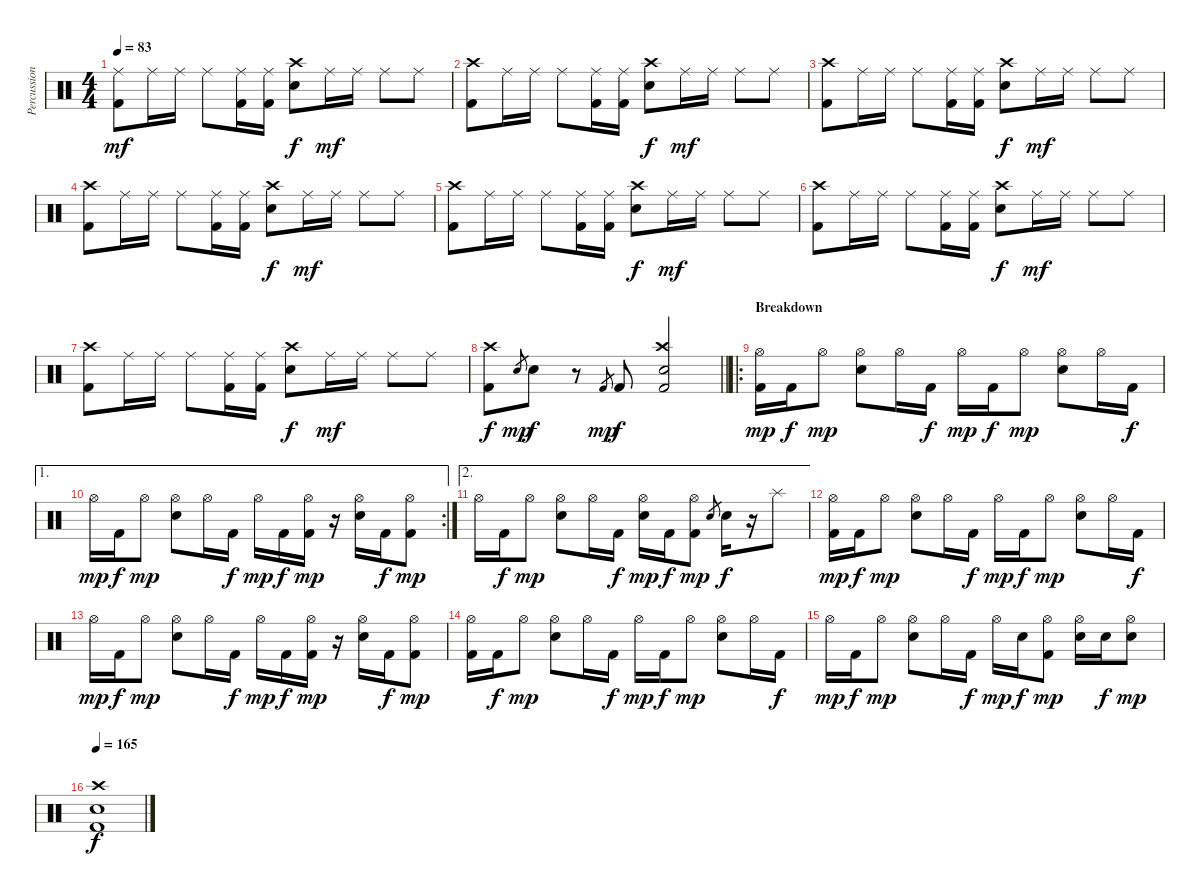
\track ("Percussion" "Percussion") {instrument percussion}
\staff {score}
\articulation defaults
\ts (4 4)
\tempo 83
\clef neutral
\ks c
("Ride (middle)" "Kick (hit) 2").8{dy mf} "Ride (middle)".16 "Ride (middle)".16 "Ride (middle)".8 ("Ride (middle)" "Kick (hit) 2").16 ("Ride (middle)" "Kick (hit) 2").16 ("Crash high (hit)" "Electric Snare (hit)").8{dy f} "Ride (middle)".16{dy mf} "Ride (middle)".16 "Ride (middle)".8 "Ride (middle)".8 |
("Crash high (hit)" "Kick (hit) 2").8 "Ride (middle)".16 "Ride (middle)".16 "Ride (middle)".8 ("Ride (middle)" "Kick (hit) 2").16 ("Ride (middle)" "Kick (hit) 2").16 ("Crash high (hit)" "Electric Snare (hit)").8{dy f} "Ride (middle)".16{dy mf} "Ride (middle)".16 "Ride (middle)".8 "Ride (middle)".8 |
("Crash high (hit)" "Kick (hit) 2").8 "Ride (middle)".16 "Ride (middle)".16 "Ride (middle)".8 ("Ride (middle)" "Kick (hit) 2").16 ("Ride (middle)" "Kick (hit) 2").16 ("Crash high (hit)" "Electric Snare (hit)").8{dy f} "Ride (middle)".16{dy mf} "Ride (middle)".16 "Ride (middle)".8 "Ride (middle)".8 |
("Crash high (hit)" "Kick (hit) 2").8 "Ride (middle)".16 "Ride (middle)".16 "Ride (middle)".8 ("Ride (middle)" "Kick (hit) 2").16 ("Ride (middle)" "Kick (hit) 2").16 ("Crash high (hit)" "Electric Snare (hit)").8{dy f} "Ride (middle)".16{dy mf} "Ride (middle)".16 "Ride (middle)".8 "Ride (middle)".8 |
("Crash high (hit)" "Kick (hit) 2").8 "Ride (middle)".16 "Ride (middle)".16 "Ride (middle)".8 ("Ride (middle)" "Kick (hit) 2").16 ("Ride (middle)" "Kick (hit) 2").16 ("Crash high (hit)" "Electric Snare (hit)").8{dy f} "Ride (middle)".16{dy mf} "Ride (middle)".16 "Ride (middle)".8 "Ride (middle)".8 |
("Crash high (hit)" "Kick (hit) 2").8 "Ride (middle)".16 "Ride (middle)".16 "Ride (middle)".8 ("Ride (middle)" "Kick (hit) 2").16 ("Ride (middle)" "Kick (hit) 2").16 ("Crash high (hit)" "Electric Snare (hit)").8{dy f} "Ride (middle)".16{dy mf} "Ride (middle)".16 "Ride (middle)".8 "Ride (middle)".8 |
("Crash high (hit)" "Kick (hit) 2").8 "Ride (middle)".16 "Ride (middle)".16 "Ride (middle)".8 ("Ride (middle)" "Kick (hit) 2").16 ("Ride (middle)" "Kick (hit) 2").16 ("Crash high (hit)" "Electric Snare (hit)").8{dy f} "Ride (middle)".16{dy mf} "Ride (middle)".16 "Ride (middle)".8 "Ride (middle)".8 |
\barLineRight lightlight
("Crash high (hit)" "Kick (hit) 2").8{dy f} "Electric Snare (hit)".8{gr dy mp} "Electric Snare (hit)".8{dy f} r.8 "Kick (hit) 2".8{gr dy mp} "Kick (hit) 2".8{dy f} ("Crash high (hit)" "Electric Snare (hit)" "Kick (hit) 2").2 |
\ro
\section ("" "Breakdown")
("Hi-Hat (open)" "Kick (hit) 2").16{dy mp} "Kick (hit) 2".16{dy f} "Hi-Hat (open)".8{dy mp} ("Hi-Hat (open)" "Electric Snare (hit)").8 "Hi-Hat (open)".16 "Kick (hit) 2".16{dy f} "Hi-Hat (open)".16{dy mp} "Kick (hit) 2".16{dy f} "Hi-Hat (open)".8{dy mp} ("Hi-Hat (open)" "Electric Snare (hit)").8 "Hi-Hat (open)".16 "Kick (hit) 2".16{dy f} |
\ae 1
\rc 2 "Hi-Hat (open)".16{dy mp} "Kick (hit) 2".16{dy f} "Hi-Hat (open)".8{dy mp}
("Hi-Hat (open)" "Electric Snare (hit)").8 "Hi-Hat (open)".16 "Kick (hit) 2".16{dy f} "Hi-Hat (open)".16{dy mp} "Kick (hit) 2".16{dy f} ("Hi-Hat (open)" "Kick (hit) 2").16{dy mp} r.16 ("Hi-Hat (open)" "Electric Snare (hit)").16 "Kick (hit) 2".16{dy f} ("Hi-Hat (open)" "Kick (hit) 2").8{dy mp} |
\ae 2 "Hi-Hat (open)".16 "Kick (hit) 2".16{dy f} "Hi-Hat (open)".8{dy mp}
("Hi-Hat (open)" "Electric Snare (hit)").8 "Hi-Hat (open)".16 "Kick (hit) 2".16{dy f} ("Hi-Hat (open)" "Electric Snare (hit)").16{dy mp} "Kick (hit) 2".16{dy f} ("Hi-Hat (open)" "Kick (hit) 2").8{dy mp} "Electric Snare (hit)".8{gr} "Electric Snare (hit)".16{dy f} r.16 "Splash (hit)".8 |
("Hi-Hat (open)" "Kick (hit) 2").16{dy mp} "Kick (hit) 2".16{dy f} "Hi-Hat (open)".8{dy mp} ("Hi-Hat (open)" "Electric Snare (hit)").8 "Hi-Hat (open)".16 "Kick (hit) 2".16{dy f} "Hi-Hat (open)".16{dy mp} "Kick (hit) 2".16{dy f} "Hi-Hat (open)".8{dy mp} ("Hi-Hat (open)" "Electric Snare (hit)").8 "Hi-Hat (open)".16 "Kick (hit) 2".16{dy f} |
"Hi-Hat (open)".16{dy mp} "Kick (hit) 2".16{dy f} "Hi-Hat (open)".8{dy mp} ("Hi-Hat (open)" "Electric Snare (hit)").8 "Hi-Hat (open)".16 "Kick (hit) 2".16{dy f} "Hi-Hat (open)".16{dy mp} "Kick (hit) 2".16{dy f} ("Hi-Hat (open)" "Kick (hit) 2").16{dy mp} r.16 ("Hi-Hat (open)" "Electric Snare (hit)").16 "Kick (hit) 2".16{dy f} ("Hi-Hat (open)" "Kick (hit) 2").8{dy mp} |
("Hi-Hat (open)" "Kick (hit) 2").16 "Kick (hit) 2".16{dy f} "Hi-Hat (open)".8{dy mp} ("Hi-Hat (open)" "Electric Snare (hit)").8 "Hi-Hat (open)".16 "Kick (hit) 2".16{dy f} "Hi-Hat (open)".16{dy mp} "Kick (hit) 2".16{dy f} "Hi-Hat (open)".8{dy mp} ("Hi-Hat (open)" "Electric Snare (hit)").8 "Hi-Hat (open)".16 "Kick (hit) 2".16{dy f} |
"Hi-Hat (open)".16{dy mp} "Kick (hit) 2".16{dy f} "Hi-Hat (open)".8{dy mp} ("Hi-Hat (open)" "Electric Snare (hit)").8 "Hi-Hat (open)".16 "Kick (hit) 2".16{dy f} "Hi-Hat (open)".16{dy mp} "Electric Snare (hit)".16{dy f} ("Hi-Hat (open)" "Kick (hit) 2").8{dy mp} ("Hi-Hat (open)" "Electric Snare (hit)").16 "Electric Snare (hit)".16{dy f} ("Hi-Hat (open)" "Electric Snare (hit)").8{dy mp} |
\tempo 165
("Crash high (hit)" "Electric Snare (hit)" "Kick (hit) 2").1{dy f}
